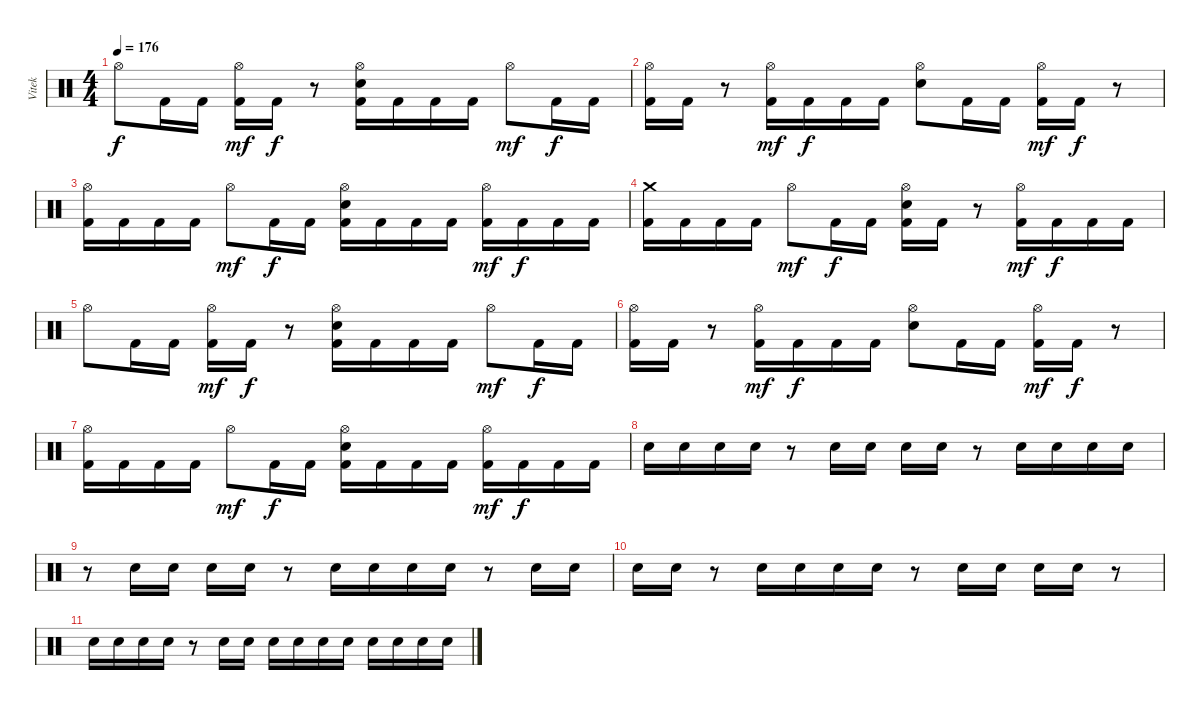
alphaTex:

\track ("Vitek" "Vitek") {instrument percussion}
\staff {score}
\articulation defaults
\ts (4 4)
\tempo 176
\clef neutral
\ks c "Hi-Hat (open)".8{dy f} "Kick (hit) 2".16 "Kick (hit) 2".16
("Hi-Hat (open)" "Kick (hit) 2").16{dy mf} "Kick (hit) 2".16{dy f} r.8 ("Hi-Hat (open)" "Electric Snare (hit)" "Kick (hit) 2").16 "Kick (hit) 2".16 "Kick (hit) 2".16 "Kick (hit) 2".16 "Hi-Hat (open)".8{dy mf} "Kick (hit) 2".16{dy f} "Kick (hit) 2".16 |
("Hi-Hat (open)" "Kick (hit) 2").16 "Kick (hit) 2".16 r.8 ("Hi-Hat (open)" "Kick (hit) 2").16{dy mf} "Kick (hit) 2".16{dy f} "Kick (hit) 2".16 "Kick (hit) 2".16 ("Hi-Hat (open)" "Electric Snare (hit)").8 "Kick (hit) 2".16 "Kick (hit) 2".16 ("Hi-Hat (open)" "Kick (hit) 2").16{dy mf} "Kick (hit) 2".16{dy f} r.8 |
("Hi-Hat (open)" "Kick (hit) 2").16 "Kick (hit) 2".16 "Kick (hit) 2".16 "Kick (hit) 2".16 "Hi-Hat (open)".8{dy mf} "Kick (hit) 2".16{dy f} "Kick (hit) 2".16 ("Hi-Hat (open)" "Electric Snare (hit)" "Kick (hit) 2").16 "Kick (hit) 2".16 "Kick (hit) 2".16 "Kick (hit) 2".16 ("Hi-Hat (open)" "Kick (hit) 2").16{dy mf} "Kick (hit) 2".16{dy f} "Kick (hit) 2".16 "Kick (hit) 2".16 |
("Crash medium (hit)" "Kick (hit) 2").16 "Kick (hit) 2".16 "Kick (hit) 2".16 "Kick (hit) 2".16 "Hi-Hat (open)".8{dy mf} "Kick (hit) 2".16{dy f} "Kick (hit) 2".16 ("Hi-Hat (open)" "Electric Snare (hit)" "Kick (hit) 2").16 "Kick (hit) 2".16 r.8 ("Hi-Hat (open)" "Kick (hit) 2").16{dy mf} "Kick (hit) 2".16{dy f} "Kick (hit) 2".16 "Kick (hit) 2".16 |
"Hi-Hat (open)".8 "Kick (hit) 2".16 "Kick (hit) 2".16 ("Hi-Hat (open)" "Kick (hit) 2").16{dy mf} "Kick (hit) 2".16{dy f} r.8 ("Hi-Hat (open)" "Electric Snare (hit)" "Kick (hit) 2").16 "Kick (hit) 2".16 "Kick (hit) 2".16 "Kick (hit) 2".16 "Hi-Hat (open)".8{dy mf} "Kick (hit) 2".16{dy f} "Kick (hit) 2".16 |
("Hi-Hat (open)" "Kick (hit) 2").16 "Kick (hit) 2".16 r.8 ("Hi-Hat (open)" "Kick (hit) 2").16{dy mf} "Kick (hit) 2".16{dy f} "Kick (hit) 2".16 "Kick (hit) 2".16 ("Hi-Hat (open)" "Electric Snare (hit)").8 "Kick (hit) 2".16 "Kick (hit) 2".16 ("Hi-Hat (open)" "Kick (hit) 2").16{dy mf} "Kick (hit) 2".16{dy f} r.8 |
("Hi-Hat (open)" "Kick (hit) 2").16 "Kick (hit) 2".16 "Kick (hit) 2".16 "Kick (hit) 2".16 "Hi-Hat (open)".8{dy mf} "Kick (hit) 2".16{dy f} "Kick (hit) 2".16 ("Hi-Hat (open)" "Electric Snare (hit)" "Kick (hit) 2").16 "Kick (hit) 2".16 "Kick (hit) 2".16 "Kick (hit) 2".16 ("Hi-Hat (open)" "Kick (hit) 2").16{dy mf} "Kick (hit) 2".16{dy f} "Kick (hit) 2".16 "Kick (hit) 2".16 |
"Electric Snare (hit)".16 "Electric Snare (hit)".16 "Electric Snare (hit)".16 "Electric Snare (hit)".16 r.8 "Electric Snare (hit)".16 "Electric Snare (hit)".16 "Electric Snare (hit)".16 "Electric Snare (hit)".16 r.8 "Electric Snare (hit)".16 "Electric Snare (hit)".16 "Electric Snare (hit)".16 "Electric Snare (hit)".16 |
r.8 "Electric Snare (hit)".16 "Electric Snare (hit)".16 "Electric Snare (hit)".16 "Electric Snare (hit)".16 r.8 "Electric Snare (hit)".16 "Electric Snare (hit)".16 "Electric Snare (hit)".16 "Electric Snare (hit)".16 r.8 "Electric Snare (hit)".16 "Electric Snare (hit)".16 |
"Electric Snare (hit)".16 "Electric Snare (hit)".16 r.8 "Electric Snare (hit)".16 "Electric Snare (hit)".16 "Electric Snare (hit)".16 "Electric Snare (hit)".16 r.8 "Electric Snare (hit)".16 "Electric Snare (hit)".16 "Electric Snare (hit)".16 "Electric Snare (hit)".16 r.8 |
"Electric Snare (hit)".16 "Electric Snare (hit)".16 "Electric Snare (hit)".16 "Electric Snare (hit)".16 r.8 "Electric Snare (hit)".16 "Electric Snare (hit)".16 "Electric Snare (hit)".16 "Electric Snare (hit)".16 "Electric Snare (hit)".16 "Electric Snare (hit)".16 "Electric Snare (hit)".16 "Electric Snare (hit)".16 "Electric Snare (hit)".16 "Electric Snare (hit)".16
